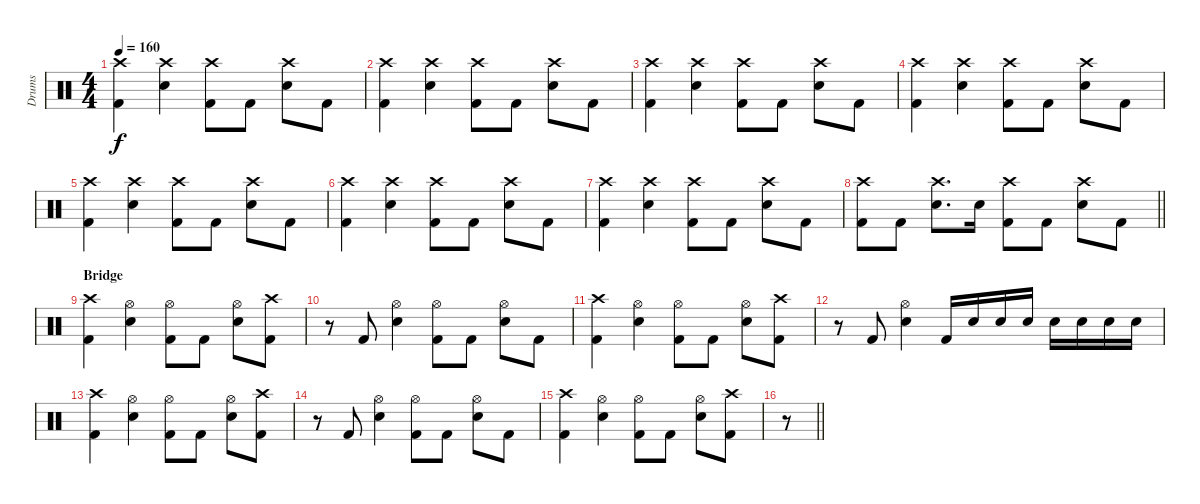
\track ("Drums" "Drums") {instrument percussion}
\staff {score}
\articulation defaults
\ts (4 4)
\tempo 160
\clef neutral
\ks c
("Crash high (hit)" "Kick (hit) 2").4{dy f} ("Crash high (hit)" "Electric Snare (hit)").4 ("Crash high (hit)" "Kick (hit) 2").8 "Kick (hit) 2".8 ("Crash high (hit)" "Electric Snare (hit)").8 "Kick (hit) 2".8 |
("Crash high (hit)" "Kick (hit) 2").4 ("Crash high (hit)" "Electric Snare (hit)").4 ("Crash high (hit)" "Kick (hit) 2").8 "Kick (hit) 2".8 ("Crash high (hit)" "Electric Snare (hit)").8 "Kick (hit) 2".8 |
("Crash high (hit)" "Kick (hit) 2").4 ("Crash high (hit)" "Electric Snare (hit)").4 ("Crash high (hit)" "Kick (hit) 2").8 "Kick (hit) 2".8 ("Crash high (hit)" "Electric Snare (hit)").8 "Kick (hit) 2".8 |
("Crash high (hit)" "Kick (hit) 2").4 ("Crash high (hit)" "Electric Snare (hit)").4 ("Crash high (hit)" "Kick (hit) 2").8 "Kick (hit) 2".8 ("Crash high (hit)" "Electric Snare (hit)").8 "Kick (hit) 2".8 |
("Crash high (hit)" "Kick (hit) 2").4 ("Crash high (hit)" "Electric Snare (hit)").4 ("Crash high (hit)" "Kick (hit) 2").8 "Kick (hit) 2".8 ("Crash high (hit)" "Electric Snare (hit)").8 "Kick (hit) 2".8 |
("Crash high (hit)" "Kick (hit) 2").4 ("Crash high (hit)" "Electric Snare (hit)").4 ("Crash high (hit)" "Kick (hit) 2").8 "Kick (hit) 2".8 ("Crash high (hit)" "Electric Snare (hit)").8 "Kick (hit) 2".8 |
("Crash high (hit)" "Kick (hit) 2").4 ("Crash high (hit)" "Electric Snare (hit)").4 ("Crash high (hit)" "Kick (hit) 2").8 "Kick (hit) 2".8 ("Crash high (hit)" "Electric Snare (hit)").8 "Kick (hit) 2".8 |
\barLineRight lightlight
("Crash high (hit)" "Kick (hit) 2").8 "Kick (hit) 2".8 ("Crash high (hit)" "Electric Snare (hit)").8{d} "Electric Snare (hit)".16 ("Crash high (hit)" "Kick (hit) 2").8 "Kick (hit) 2".8 ("Crash high (hit)" "Electric Snare (hit)").8 "Kick (hit) 2".8 |
\section ("" "Bridge")
("Crash high (hit)" "Kick (hit) 2").4 ("Hi-Hat (open)" "Electric Snare (hit)").4 ("Hi-Hat (open)" "Kick (hit) 2").8 "Kick (hit) 2".8 ("Hi-Hat (open)" "Electric Snare (hit)").8 ("Crash high (hit)" "Kick (hit) 2").8 |
r.8 "Kick (hit) 2".8 ("Hi-Hat (open)" "Electric Snare (hit)").4 ("Hi-Hat (open)" "Kick (hit) 2").8 "Kick (hit) 2".8 ("Hi-Hat (open)" "Electric Snare (hit)").8 "Kick (hit) 2".8 |
("Crash high (hit)" "Kick (hit) 2").4 ("Hi-Hat (open)" "Electric Snare (hit)").4 ("Hi-Hat (open)" "Kick (hit) 2").8 "Kick (hit) 2".8 ("Hi-Hat (open)" "Electric Snare (hit)").8 ("Crash high (hit)" "Kick (hit) 2").8 |
r.8 "Kick (hit) 2".8 ("Hi-Hat (open)" "Electric Snare (hit)").4 "Kick (hit) 2".16 "Electric Snare (hit)".16 "Electric Snare (hit)".16 "Electric Snare (hit)".16 "Electric Snare (hit)".16 "Electric Snare (hit)".16 "Electric Snare (hit)".16 "Electric Snare (hit)".16 |
("Crash high (hit)" "Kick (hit) 2").4 ("Hi-Hat (open)" "Electric Snare (hit)").4 ("Hi-Hat (open)" "Kick (hit) 2").8 "Kick (hit) 2".8 ("Hi-Hat (open)" "Electric Snare (hit)").8 ("Crash high (hit)" "Kick (hit) 2").8 |
r.8 "Kick (hit) 2".8 ("Hi-Hat (open)" "Electric Snare (hit)").4 ("Hi-Hat (open)" "Kick (hit) 2").8 "Kick (hit) 2".8 ("Hi-Hat (open)" "Electric Snare (hit)").8 "Kick (hit) 2".8 |
("Crash high (hit)" "Kick (hit) 2").4 ("Hi-Hat (open)" "Electric Snare (hit)").4 ("Hi-Hat (open)" "Kick (hit) 2").8 "Kick (hit) 2".8 ("Hi-Hat (open)" "Electric Snare (hit)").8 ("Crash high (hit)" "Kick (hit) 2").8 |
\barLineRight lightlight
r.8
